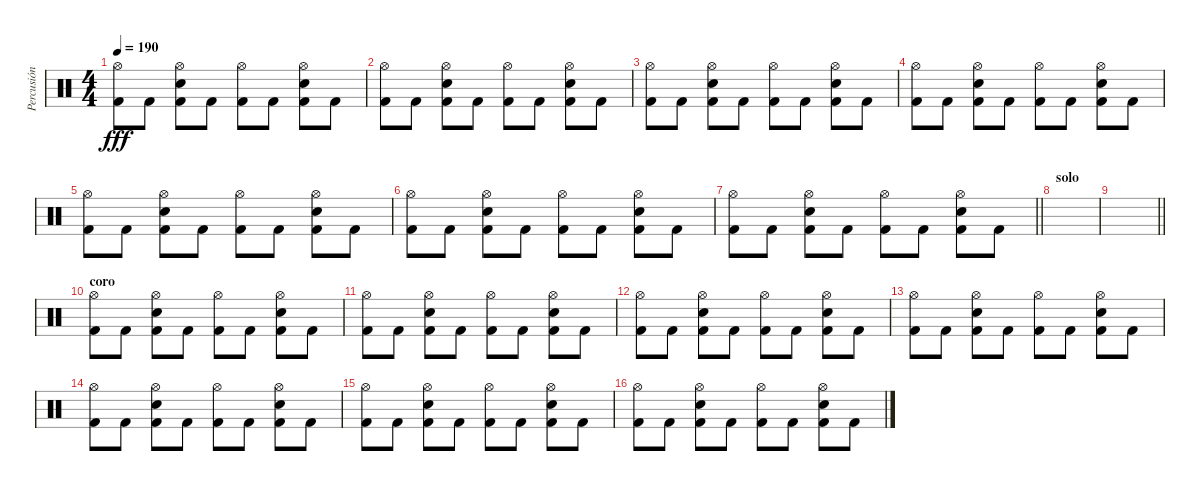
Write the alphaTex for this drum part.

\track ("Percusión" "Percusión") {instrument percussion}
\staff {score}
\articulation defaults
\ts (4 4)
\tempo 190
\clef neutral
\ks c
("Hi-Hat (open)" "Kick (hit) 2").8{dy fff} "Kick (hit) 2".8 ("Hi-Hat (open)" "Electric Snare (hit)" "Kick (hit) 2").8 "Kick (hit) 2".8 ("Hi-Hat (open)" "Kick (hit) 2").8 "Kick (hit) 2".8 ("Hi-Hat (open)" "Electric Snare (hit)" "Kick (hit) 2").8 "Kick (hit) 2".8 |
("Hi-Hat (open)" "Kick (hit) 2").8 "Kick (hit) 2".8 ("Hi-Hat (open)" "Electric Snare (hit)" "Kick (hit) 2").8 "Kick (hit) 2".8 ("Hi-Hat (open)" "Kick (hit) 2").8 "Kick (hit) 2".8 ("Hi-Hat (open)" "Electric Snare (hit)" "Kick (hit) 2").8 "Kick (hit) 2".8 |
("Hi-Hat (open)" "Kick (hit) 2").8 "Kick (hit) 2".8 ("Hi-Hat (open)" "Electric Snare (hit)" "Kick (hit) 2").8 "Kick (hit) 2".8 ("Hi-Hat (open)" "Kick (hit) 2").8 "Kick (hit) 2".8 ("Hi-Hat (open)" "Electric Snare (hit)" "Kick (hit) 2").8 "Kick (hit) 2".8 |
("Hi-Hat (open)" "Kick (hit) 2").8 "Kick (hit) 2".8 ("Hi-Hat (open)" "Electric Snare (hit)" "Kick (hit) 2").8 "Kick (hit) 2".8 ("Hi-Hat (open)" "Kick (hit) 2").8 "Kick (hit) 2".8 ("Hi-Hat (open)" "Electric Snare (hit)" "Kick (hit) 2").8 "Kick (hit) 2".8 |
("Hi-Hat (open)" "Kick (hit) 2").8 "Kick (hit) 2".8 ("Hi-Hat (open)" "Electric Snare (hit)" "Kick (hit) 2").8 "Kick (hit) 2".8 ("Hi-Hat (open)" "Kick (hit) 2").8 "Kick (hit) 2".8 ("Hi-Hat (open)" "Electric Snare (hit)" "Kick (hit) 2").8 "Kick (hit) 2".8 |
("Hi-Hat (open)" "Kick (hit) 2").8 "Kick (hit) 2".8 ("Hi-Hat (open)" "Electric Snare (hit)" "Kick (hit) 2").8 "Kick (hit) 2".8 ("Hi-Hat (open)" "Kick (hit) 2").8 "Kick (hit) 2".8 ("Hi-Hat (open)" "Electric Snare (hit)" "Kick (hit) 2").8 "Kick (hit) 2".8 |
\barLineRight lightlight
("Hi-Hat (open)" "Kick (hit) 2").8 "Kick (hit) 2".8 ("Hi-Hat (open)" "Electric Snare (hit)" "Kick (hit) 2").8 "Kick (hit) 2".8 ("Hi-Hat (open)" "Kick (hit) 2").8 "Kick (hit) 2".8 ("Hi-Hat (open)" "Electric Snare (hit)" "Kick (hit) 2").8 "Kick (hit) 2".8 |
\section ("" "solo")
|
\barLineRight lightlight
|
\section ("" "coro")
("Hi-Hat (open)" "Kick (hit) 2").8 "Kick (hit) 2".8 ("Hi-Hat (open)" "Electric Snare (hit)" "Kick (hit) 2").8 "Kick (hit) 2".8 ("Hi-Hat (open)" "Kick (hit) 2").8 "Kick (hit) 2".8 ("Hi-Hat (open)" "Electric Snare (hit)" "Kick (hit) 2").8 "Kick (hit) 2".8 |
("Hi-Hat (open)" "Kick (hit) 2").8 "Kick (hit) 2".8 ("Hi-Hat (open)" "Electric Snare (hit)" "Kick (hit) 2").8 "Kick (hit) 2".8 ("Hi-Hat (open)" "Kick (hit) 2").8 "Kick (hit) 2".8 ("Hi-Hat (open)" "Electric Snare (hit)" "Kick (hit) 2").8 "Kick (hit) 2".8 |
("Hi-Hat (open)" "Kick (hit) 2").8 "Kick (hit) 2".8 ("Hi-Hat (open)" "Electric Snare (hit)" "Kick (hit) 2").8 "Kick (hit) 2".8 ("Hi-Hat (open)" "Kick (hit) 2").8 "Kick (hit) 2".8 ("Hi-Hat (open)" "Electric Snare (hit)" "Kick (hit) 2").8 "Kick (hit) 2".8 |
("Hi-Hat (open)" "Kick (hit) 2").8 "Kick (hit) 2".8 ("Hi-Hat (open)" "Electric Snare (hit)" "Kick (hit) 2").8 "Kick (hit) 2".8 ("Hi-Hat (open)" "Kick (hit) 2").8 "Kick (hit) 2".8 ("Hi-Hat (open)" "Electric Snare (hit)" "Kick (hit) 2").8 "Kick (hit) 2".8 |
("Hi-Hat (open)" "Kick (hit) 2").8 "Kick (hit) 2".8 ("Hi-Hat (open)" "Electric Snare (hit)" "Kick (hit) 2").8 "Kick (hit) 2".8 ("Hi-Hat (open)" "Kick (hit) 2").8 "Kick (hit) 2".8 ("Hi-Hat (open)" "Electric Snare (hit)" "Kick (hit) 2").8 "Kick (hit) 2".8 |
("Hi-Hat (open)" "Kick (hit) 2").8 "Kick (hit) 2".8 ("Hi-Hat (open)" "Electric Snare (hit)" "Kick (hit) 2").8 "Kick (hit) 2".8 ("Hi-Hat (open)" "Kick (hit) 2").8 "Kick (hit) 2".8 ("Hi-Hat (open)" "Electric Snare (hit)" "Kick (hit) 2").8 "Kick (hit) 2".8 |
("Hi-Hat (open)" "Kick (hit) 2").8 "Kick (hit) 2".8 ("Hi-Hat (open)" "Electric Snare (hit)" "Kick (hit) 2").8 "Kick (hit) 2".8 ("Hi-Hat (open)" "Kick (hit) 2").8 "Kick (hit) 2".8 ("Hi-Hat (open)" "Electric Snare (hit)" "Kick (hit) 2").8 "Kick (hit) 2".8
